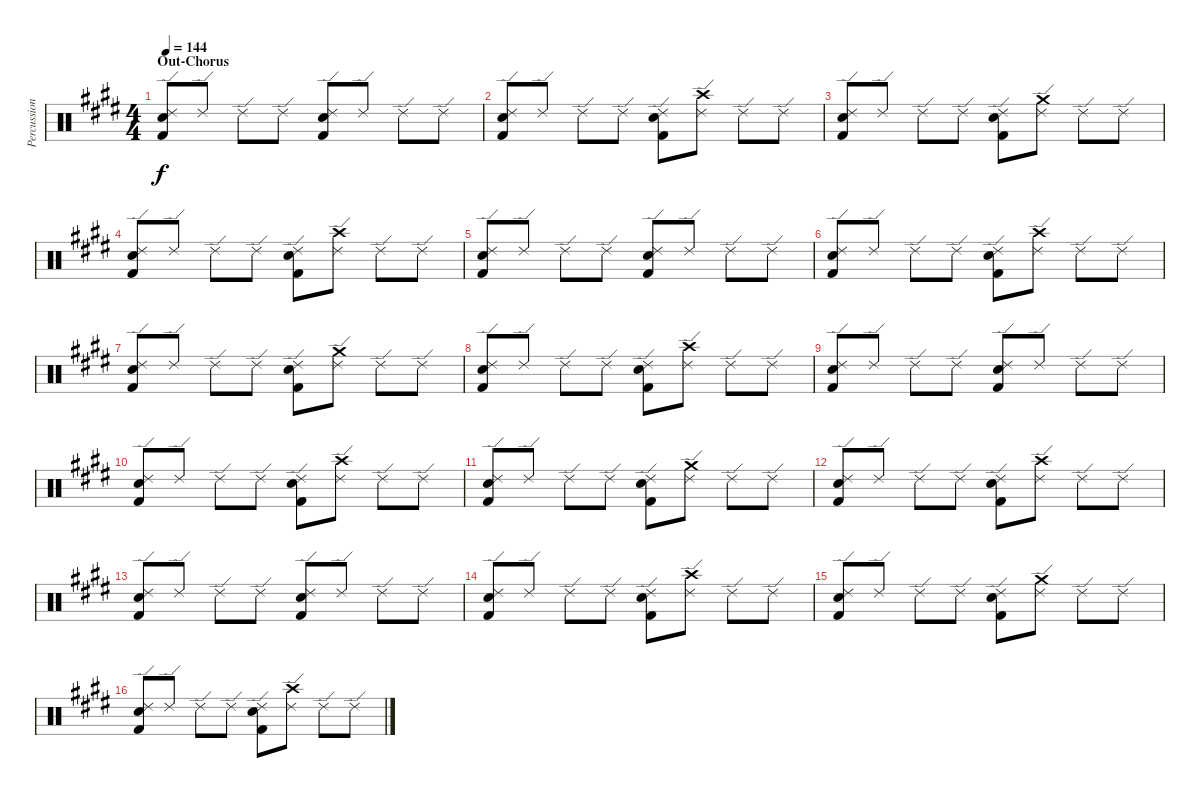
\track ("Percussion" "Percussion") {instrument percussion}
\staff {score}
\articulation defaults
\ts (4 4)
\section ("" "Out-Chorus")
\tempo 144
\clef neutral
\ks e
("Ride (edge) 2" "Snare (hit) 2" "Kick (hit) 2").8{dy f} "Ride (edge) 2".8 "Ride (edge) 2".8 "Ride (edge) 2".8 ("Ride (edge) 2" "Snare (hit) 2" "Kick (hit) 2").8 "Ride (edge) 2".8 "Ride (edge) 2".8 "Ride (edge) 2".8 |
\ks c#minor
("Ride (edge) 2" "Snare (hit) 2" "Kick (hit) 2").8 "Ride (edge) 2".8 "Ride (edge) 2".8 "Ride (edge) 2".8 ("Ride (edge) 2" "Snare (hit) 2" "Kick (hit) 2").8 ("Ride (edge) 2" "Crash high (hit)").8 "Ride (edge) 2".8 "Ride (edge) 2".8 |
("Ride (edge) 2" "Snare (hit) 2" "Kick (hit) 2").8 "Ride (edge) 2".8 "Ride (edge) 2".8 "Ride (edge) 2".8 ("Ride (edge) 2" "Snare (hit) 2" "Kick (hit) 2").8 ("Ride (edge) 2" "Crash medium (hit)").8 "Ride (edge) 2".8 "Ride (edge) 2".8 |
("Ride (edge) 2" "Snare (hit) 2" "Kick (hit) 2").8 "Ride (edge) 2".8 "Ride (edge) 2".8 "Ride (edge) 2".8 ("Ride (edge) 2" "Snare (hit) 2" "Kick (hit) 2").8 ("Ride (edge) 2" "Crash high (hit)").8 "Ride (edge) 2".8 "Ride (edge) 2".8 |
\ks e
("Ride (edge) 2" "Snare (hit) 2" "Kick (hit) 2").8 "Ride (edge) 2".8 "Ride (edge) 2".8 "Ride (edge) 2".8 ("Ride (edge) 2" "Snare (hit) 2" "Kick (hit) 2").8 "Ride (edge) 2".8 "Ride (edge) 2".8 "Ride (edge) 2".8 |
\ks c#minor
("Ride (edge) 2" "Snare (hit) 2" "Kick (hit) 2").8 "Ride (edge) 2".8 "Ride (edge) 2".8 "Ride (edge) 2".8 ("Ride (edge) 2" "Snare (hit) 2" "Kick (hit) 2").8 ("Ride (edge) 2" "Crash high (hit)").8 "Ride (edge) 2".8 "Ride (edge) 2".8 |
("Ride (edge) 2" "Snare (hit) 2" "Kick (hit) 2").8 "Ride (edge) 2".8 "Ride (edge) 2".8 "Ride (edge) 2".8 ("Ride (edge) 2" "Snare (hit) 2" "Kick (hit) 2").8 ("Ride (edge) 2" "Crash medium (hit)").8 "Ride (edge) 2".8 "Ride (edge) 2".8 |
("Ride (edge) 2" "Snare (hit) 2" "Kick (hit) 2").8 "Ride (edge) 2".8 "Ride (edge) 2".8 "Ride (edge) 2".8 ("Ride (edge) 2" "Snare (hit) 2" "Kick (hit) 2").8 ("Ride (edge) 2" "Crash high (hit)").8 "Ride (edge) 2".8 "Ride (edge) 2".8 |
\ks e
("Ride (edge) 2" "Snare (hit) 2" "Kick (hit) 2").8 "Ride (edge) 2".8 "Ride (edge) 2".8 "Ride (edge) 2".8 ("Ride (edge) 2" "Snare (hit) 2" "Kick (hit) 2").8 "Ride (edge) 2".8 "Ride (edge) 2".8 "Ride (edge) 2".8 |
\ks c#minor
("Ride (edge) 2" "Snare (hit) 2" "Kick (hit) 2").8 "Ride (edge) 2".8 "Ride (edge) 2".8 "Ride (edge) 2".8 ("Ride (edge) 2" "Snare (hit) 2" "Kick (hit) 2").8 ("Ride (edge) 2" "Crash high (hit)").8 "Ride (edge) 2".8 "Ride (edge) 2".8 |
("Ride (edge) 2" "Snare (hit) 2" "Kick (hit) 2").8 "Ride (edge) 2".8 "Ride (edge) 2".8 "Ride (edge) 2".8 ("Ride (edge) 2" "Snare (hit) 2" "Kick (hit) 2").8 ("Ride (edge) 2" "Crash medium (hit)").8 "Ride (edge) 2".8 "Ride (edge) 2".8 |
("Ride (edge) 2" "Snare (hit) 2" "Kick (hit) 2").8 "Ride (edge) 2".8 "Ride (edge) 2".8 "Ride (edge) 2".8 ("Ride (edge) 2" "Snare (hit) 2" "Kick (hit) 2").8 ("Ride (edge) 2" "Crash high (hit)").8 "Ride (edge) 2".8 "Ride (edge) 2".8 |
\ks e
("Ride (edge) 2" "Snare (hit) 2" "Kick (hit) 2").8 "Ride (edge) 2".8 "Ride (edge) 2".8 "Ride (edge) 2".8 ("Ride (edge) 2" "Snare (hit) 2" "Kick (hit) 2").8 "Ride (edge) 2".8 "Ride (edge) 2".8 "Ride (edge) 2".8 |
\ks c#minor
("Ride (edge) 2" "Snare (hit) 2" "Kick (hit) 2").8 "Ride (edge) 2".8 "Ride (edge) 2".8 "Ride (edge) 2".8 ("Ride (edge) 2" "Snare (hit) 2" "Kick (hit) 2").8 ("Ride (edge) 2" "Crash high (hit)").8 "Ride (edge) 2".8 "Ride (edge) 2".8 |
("Ride (edge) 2" "Snare (hit) 2" "Kick (hit) 2").8 "Ride (edge) 2".8 "Ride (edge) 2".8 "Ride (edge) 2".8 ("Ride (edge) 2" "Snare (hit) 2" "Kick (hit) 2").8 ("Ride (edge) 2" "Crash medium (hit)").8 "Ride (edge) 2".8 "Ride (edge) 2".8 |
("Ride (edge) 2" "Snare (hit) 2" "Kick (hit) 2").8 "Ride (edge) 2".8 "Ride (edge) 2".8 "Ride (edge) 2".8 ("Ride (edge) 2" "Snare (hit) 2" "Kick (hit) 2").8 ("Ride (edge) 2" "Crash high (hit)").8 "Ride (edge) 2".8 "Ride (edge) 2".8
